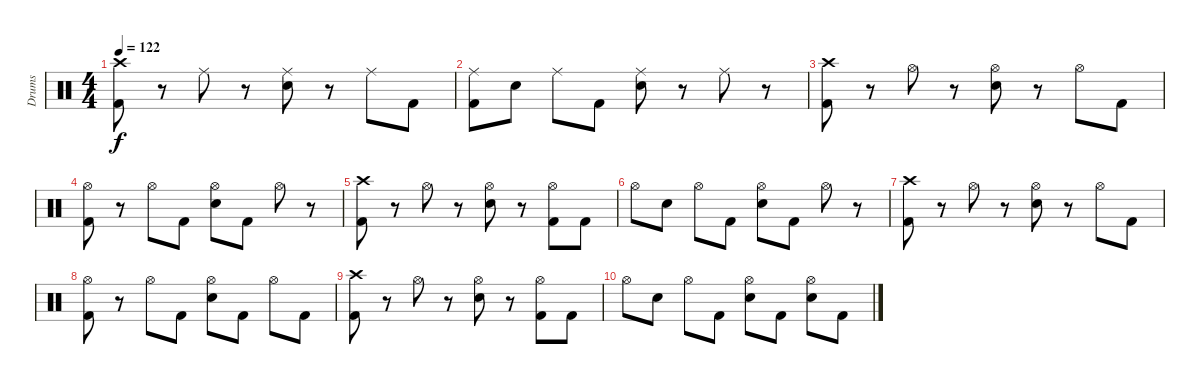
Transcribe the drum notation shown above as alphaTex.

\track ("Drums" "Drums") {instrument percussion}
\staff {score}
\articulation defaults
\ts (4 4)
\tempo 122
\clef neutral
\ks c
("Crash high (hit)" "Kick (hit) 2").8{dy f} r.8 "Ride (middle)".8 r.8 ("Ride (middle)" "Electric Snare (hit)").8 r.8 "Ride (middle)".8 "Kick (hit) 2".8 |
("Ride (middle)" "Kick (hit) 2").8 "Electric Snare (hit)".8 "Ride (middle)".8 "Kick (hit) 2".8 ("Ride (middle)" "Electric Snare (hit)").8 r.8 "Ride (middle)".8 r.8 |
("Crash high (hit)" "Kick (hit) 2").8{volume 6} r.8 "Hi-Hat (open)".8 r.8 ("Hi-Hat (open)" "Electric Snare (hit)").8 r.8 "Hi-Hat (open)".8 "Kick (hit) 2".8 |
("Hi-Hat (open)" "Kick (hit) 2").8 r.8 "Hi-Hat (open)".8 "Kick (hit) 2".8 ("Hi-Hat (open)" "Electric Snare (hit)").8 "Kick (hit) 2".8 "Hi-Hat (open)".8 r.8 |
("Crash high (hit)" "Kick (hit) 2").8 r.8 "Hi-Hat (open)".8 r.8 ("Hi-Hat (open)" "Electric Snare (hit)").8 r.8 ("Hi-Hat (open)" "Kick (hit) 2").8 "Kick (hit) 2".8 |
"Hi-Hat (open)".8 "Electric Snare (hit)".8 "Hi-Hat (open)".8 "Kick (hit) 2".8 ("Hi-Hat (open)" "Electric Snare (hit)").8 "Kick (hit) 2".8 "Hi-Hat (open)".8 r.8 |
("Crash high (hit)" "Kick (hit) 2").8{volume 0} r.8 "Hi-Hat (open)".8 r.8 ("Hi-Hat (open)" "Electric Snare (hit)").8 r.8 "Hi-Hat (open)".8 "Kick (hit) 2".8 |
("Hi-Hat (open)" "Kick (hit) 2").8 r.8 "Hi-Hat (open)".8 "Kick (hit) 2".8 ("Hi-Hat (open)" "Electric Snare (hit)").8 "Kick (hit) 2".8 "Hi-Hat (open)".8 "Kick (hit) 2".8 |
("Crash high (hit)" "Kick (hit) 2").8 r.8 "Hi-Hat (open)".8 r.8 ("Hi-Hat (open)" "Electric Snare (hit)").8 r.8 ("Hi-Hat (open)" "Kick (hit) 2").8 "Kick (hit) 2".8 |
"Hi-Hat (open)".8 "Electric Snare (hit)".8 "Hi-Hat (open)".8 "Kick (hit) 2".8 ("Hi-Hat (open)" "Electric Snare (hit)").8 "Kick (hit) 2".8 ("Hi-Hat (open)" "Electric Snare (hit)").8 "Kick (hit) 2".8
